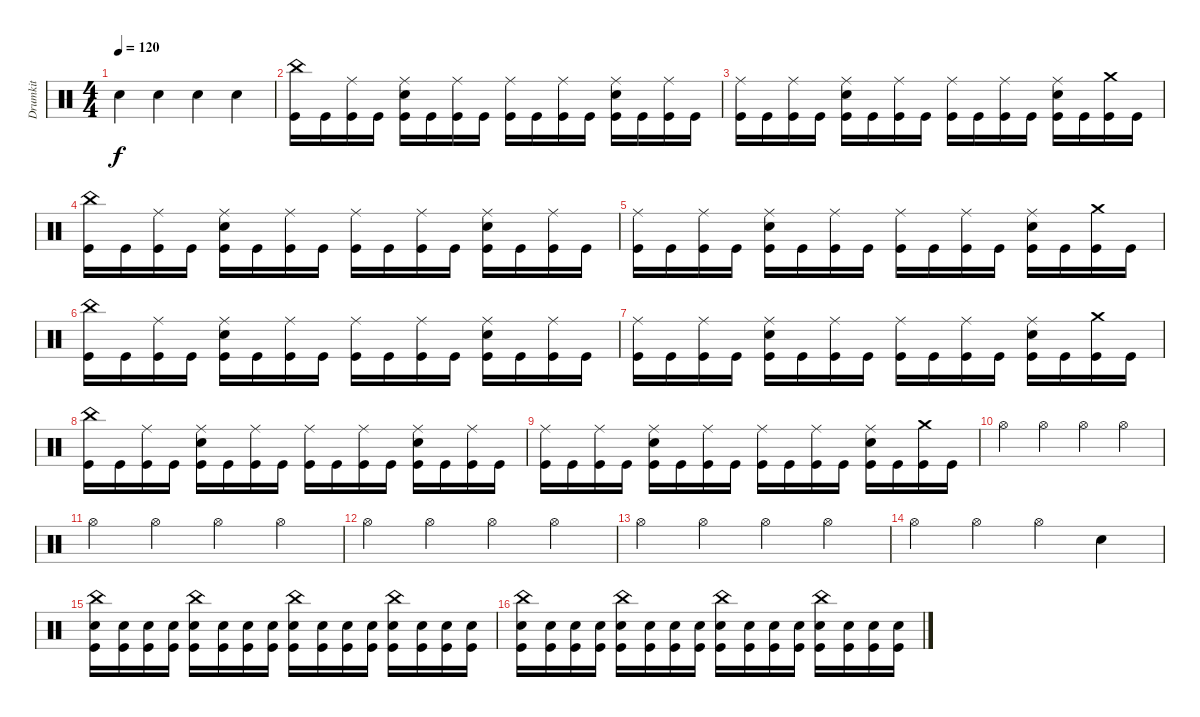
\track ("Drumkit" "Drumkit") {instrument percussion}
\staff {score}
\articulation defaults
\ts (4 4)
\tempo 120
\clef neutral
\ks c "Snare (hit) 2".4{dy f} "Snare (hit) 2".4 "Snare (hit) 2".4 "Snare (hit) 2".4
|
("Kick (hit)" "China (hit)").16 "Kick (hit)".16 ("Kick (hit)" "Ride (middle)").16 "Kick (hit)".16 ("Kick (hit)" "Ride (middle)" "Snare (hit) 2").16 "Kick (hit)".16 ("Kick (hit)" "Ride (middle)").16 "Kick (hit)".16 ("Kick (hit)" "Ride (middle)").16 "Kick (hit)".16 ("Kick (hit)" "Ride (middle)").16 "Kick (hit)".16 ("Kick (hit)" "Ride (middle)" "Snare (hit) 2").16 "Kick (hit)".16 ("Kick (hit)" "Ride (middle)").16 "Kick (hit)".16 |
("Kick (hit)" "Ride (middle)").16 "Kick (hit)".16 ("Kick (hit)" "Ride (middle)").16 "Kick (hit)".16 ("Kick (hit)" "Ride (middle)" "Snare (hit) 2").16 "Kick (hit)".16 ("Kick (hit)" "Ride (middle)").16 "Kick (hit)".16 ("Kick (hit)" "Ride (middle)").16 "Kick (hit)".16 ("Kick (hit)" "Ride (middle)").16 "Kick (hit)".16 ("Kick (hit)" "Snare (hit) 2" "Ride (middle)").16 "Kick (hit)".16 ("Kick (hit)" "Crash medium (hit)").16 "Kick (hit)".16 |
("Kick (hit)" "China (hit)").16 "Kick (hit)".16 ("Kick (hit)" "Ride (middle)").16 "Kick (hit)".16 ("Kick (hit)" "Ride (middle)" "Snare (hit) 2").16 "Kick (hit)".16 ("Kick (hit)" "Ride (middle)").16 "Kick (hit)".16 ("Kick (hit)" "Ride (middle)").16 "Kick (hit)".16 ("Kick (hit)" "Ride (middle)").16 "Kick (hit)".16 ("Kick (hit)" "Ride (middle)" "Snare (hit) 2").16 "Kick (hit)".16 ("Kick (hit)" "Ride (middle)").16 "Kick (hit)".16 |
("Kick (hit)" "Ride (middle)").16 "Kick (hit)".16 ("Kick (hit)" "Ride (middle)").16 "Kick (hit)".16 ("Kick (hit)" "Ride (middle)" "Snare (hit) 2").16 "Kick (hit)".16 ("Kick (hit)" "Ride (middle)").16 "Kick (hit)".16 ("Kick (hit)" "Ride (middle)").16 "Kick (hit)".16 ("Kick (hit)" "Ride (middle)").16 "Kick (hit)".16 ("Kick (hit)" "Snare (hit) 2" "Ride (middle)").16 "Kick (hit)".16 ("Kick (hit)" "Crash medium (hit)").16 "Kick (hit)".16 |
("Kick (hit)" "China (hit)").16 "Kick (hit)".16 ("Kick (hit)" "Ride (middle)").16 "Kick (hit)".16 ("Kick (hit)" "Ride (middle)" "Snare (hit) 2").16 "Kick (hit)".16 ("Kick (hit)" "Ride (middle)").16 "Kick (hit)".16 ("Kick (hit)" "Ride (middle)").16 "Kick (hit)".16 ("Kick (hit)" "Ride (middle)").16 "Kick (hit)".16 ("Kick (hit)" "Ride (middle)" "Snare (hit) 2").16 "Kick (hit)".16 ("Kick (hit)" "Ride (middle)").16 "Kick (hit)".16 |
("Kick (hit)" "Ride (middle)").16 "Kick (hit)".16 ("Kick (hit)" "Ride (middle)").16 "Kick (hit)".16 ("Kick (hit)" "Ride (middle)" "Snare (hit) 2").16 "Kick (hit)".16 ("Kick (hit)" "Ride (middle)").16 "Kick (hit)".16 ("Kick (hit)" "Ride (middle)").16 "Kick (hit)".16 ("Kick (hit)" "Ride (middle)").16 "Kick (hit)".16 ("Kick (hit)" "Snare (hit) 2" "Ride (middle)").16 "Kick (hit)".16 ("Kick (hit)" "Crash medium (hit)").16 "Kick (hit)".16 |
("Kick (hit)" "China (hit)").16 "Kick (hit)".16 ("Kick (hit)" "Ride (middle)").16 "Kick (hit)".16 ("Kick (hit)" "Ride (middle)" "Snare (hit) 2").16 "Kick (hit)".16 ("Kick (hit)" "Ride (middle)").16 "Kick (hit)".16 ("Kick (hit)" "Ride (middle)").16 "Kick (hit)".16 ("Kick (hit)" "Ride (middle)").16 "Kick (hit)".16 ("Kick (hit)" "Ride (middle)" "Snare (hit) 2").16 "Kick (hit)".16 ("Kick (hit)" "Ride (middle)").16 "Kick (hit)".16 |
("Kick (hit)" "Ride (middle)").16 "Kick (hit)".16 ("Kick (hit)" "Ride (middle)").16 "Kick (hit)".16 ("Kick (hit)" "Ride (middle)" "Snare (hit) 2").16 "Kick (hit)".16 ("Kick (hit)" "Ride (middle)").16 "Kick (hit)".16 ("Kick (hit)" "Ride (middle)").16 "Kick (hit)".16 ("Kick (hit)" "Ride (middle)").16 "Kick (hit)".16 ("Kick (hit)" "Snare (hit) 2" "Ride (middle)").16 "Kick (hit)".16 ("Kick (hit)" "Crash medium (hit)").16 "Kick (hit)".16 |
"Hi-Hat (open)".4 "Hi-Hat (open)".4 "Hi-Hat (open)".4 "Hi-Hat (open)".4 |
"Hi-Hat (open)".4 "Hi-Hat (open)".4 "Hi-Hat (open)".4 "Hi-Hat (open)".4 |
"Hi-Hat (open)".4 "Hi-Hat (open)".4 "Hi-Hat (open)".4 "Hi-Hat (open)".4 |
"Hi-Hat (open)".4 "Hi-Hat (open)".4 "Hi-Hat (open)".4 "Hi-Hat (open)".4 |
"Hi-Hat (open)".4 "Hi-Hat (open)".4 "Hi-Hat (open)".4 "Snare (hit) 2".4 |
("Kick (hit)" "China (hit)" "Snare (hit) 2").16 ("Kick (hit)" "Snare (hit) 2").16 ("Kick (hit)" "Snare (hit) 2").16 ("Kick (hit)" "Snare (hit) 2").16 ("Kick (hit)" "China (hit)" "Snare (hit) 2").16 ("Kick (hit)" "Snare (hit) 2").16 ("Kick (hit)" "Snare (hit) 2").16 ("Kick (hit)" "Snare (hit) 2").16 ("Kick (hit)" "China (hit)" "Snare (hit) 2").16 ("Kick (hit)" "Snare (hit) 2").16 ("Kick (hit)" "Snare (hit) 2").16 ("Kick (hit)" "Snare (hit) 2").16 ("Kick (hit)" "China (hit)" "Snare (hit) 2").16 ("Kick (hit)" "Snare (hit) 2").16 ("Kick (hit)" "Snare (hit) 2").16 ("Kick (hit)" "Snare (hit) 2").16 |
("Kick (hit)" "China (hit)" "Snare (hit) 2").16 ("Kick (hit)" "Snare (hit) 2").16 ("Kick (hit)" "Snare (hit) 2").16 ("Kick (hit)" "Snare (hit) 2").16 ("Kick (hit)" "China (hit)" "Snare (hit) 2").16 ("Kick (hit)" "Snare (hit) 2").16 ("Kick (hit)" "Snare (hit) 2").16 ("Kick (hit)" "Snare (hit) 2").16 ("Kick (hit)" "China (hit)" "Snare (hit) 2").16 ("Kick (hit)" "Snare (hit) 2").16 ("Kick (hit)" "Snare (hit) 2").16 ("Kick (hit)" "Snare (hit) 2").16 ("Kick (hit)" "China (hit)" "Snare (hit) 2").16 ("Kick (hit)" "Snare (hit) 2").16 ("Kick (hit)" "Snare (hit) 2").16 ("Kick (hit)" "Snare (hit) 2").16
